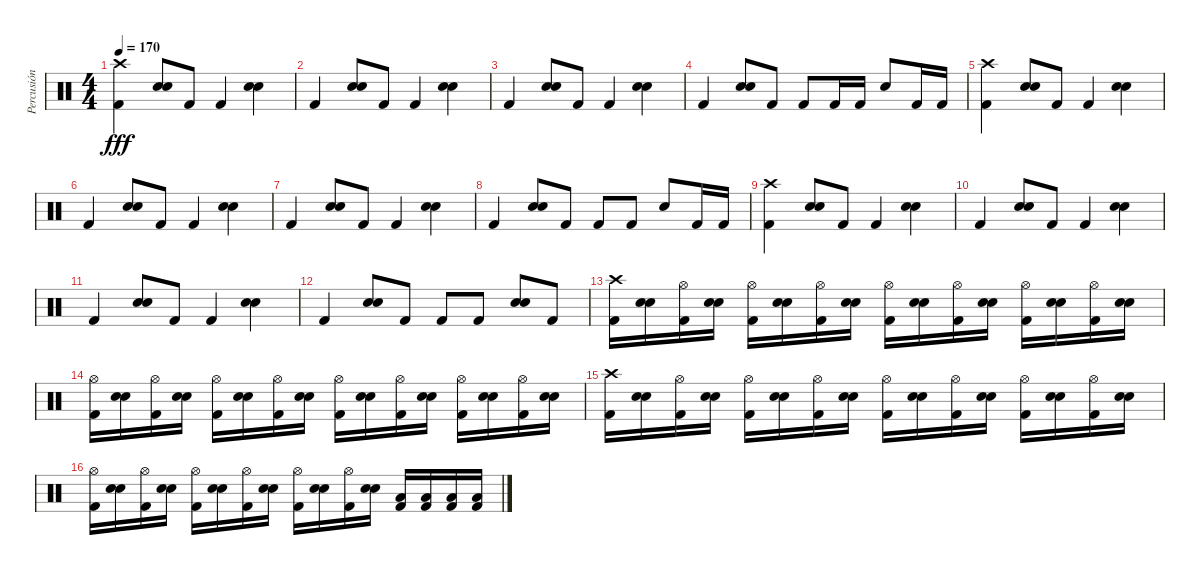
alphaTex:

\track ("Percusión" "Percusión") {instrument percussion}
\staff {score}
\articulation defaults
\ts (4 4)
\tempo 170
\clef neutral
\ks c
("Crash high (hit)" "Kick (hit) 2").4{dy fff} ("Snare (hit) 2" "Electric Snare (hit)").8 "Kick (hit) 2".8 "Kick (hit) 2".4 ("Snare (hit) 2" "Electric Snare (hit)").4 |
"Kick (hit) 2".4 ("Snare (hit) 2" "Electric Snare (hit)").8 "Kick (hit) 2".8 "Kick (hit) 2".4 ("Snare (hit) 2" "Electric Snare (hit)").4 |
"Kick (hit) 2".4 ("Snare (hit) 2" "Electric Snare (hit)").8 "Kick (hit) 2".8 "Kick (hit) 2".4 ("Snare (hit) 2" "Electric Snare (hit)").4 |
"Kick (hit) 2".4 ("Snare (hit) 2" "Electric Snare (hit)").8 "Kick (hit) 2".8 "Kick (hit) 2".8 "Kick (hit) 2".16 "Kick (hit) 2".16 "Snare (hit) 2".8 "Kick (hit) 2".16 "Kick (hit) 2".16 |
("Crash high (hit)" "Kick (hit) 2").4 ("Snare (hit) 2" "Electric Snare (hit)").8 "Kick (hit) 2".8 "Kick (hit) 2".4 ("Snare (hit) 2" "Electric Snare (hit)").4 |
"Kick (hit) 2".4 ("Snare (hit) 2" "Electric Snare (hit)").8 "Kick (hit) 2".8 "Kick (hit) 2".4 ("Snare (hit) 2" "Electric Snare (hit)").4 |
"Kick (hit) 2".4 ("Snare (hit) 2" "Electric Snare (hit)").8 "Kick (hit) 2".8 "Kick (hit) 2".4 ("Snare (hit) 2" "Electric Snare (hit)").4 |
"Kick (hit) 2".4 ("Snare (hit) 2" "Electric Snare (hit)").8 "Kick (hit) 2".8 "Kick (hit) 2".8 "Kick (hit) 2".8 "Snare (hit) 2".8 "Kick (hit) 2".16 "Kick (hit) 2".16 |
("Crash high (hit)" "Kick (hit) 2").4 ("Snare (hit) 2" "Electric Snare (hit)").8 "Kick (hit) 2".8 "Kick (hit) 2".4 ("Snare (hit) 2" "Electric Snare (hit)").4 |
"Kick (hit) 2".4 ("Snare (hit) 2" "Electric Snare (hit)").8 "Kick (hit) 2".8 "Kick (hit) 2".4 ("Snare (hit) 2" "Electric Snare (hit)").4 |
"Kick (hit) 2".4 ("Snare (hit) 2" "Electric Snare (hit)").8 "Kick (hit) 2".8 "Kick (hit) 2".4 ("Snare (hit) 2" "Electric Snare (hit)").4 |
"Kick (hit) 2".4 ("Snare (hit) 2" "Electric Snare (hit)").8 "Kick (hit) 2".8 "Kick (hit) 2".8 "Kick (hit) 2".8 ("Snare (hit) 2" "Electric Snare (hit)").8 "Kick (hit) 2".8 |
("Kick (hit) 2" "Crash high (hit)").16 ("Snare (hit) 2" "Electric Snare (hit)").16 ("Kick (hit) 2" "Hi-Hat (open)").16 ("Snare (hit) 2" "Electric Snare (hit)").16 ("Kick (hit) 2" "Hi-Hat (open)").16 ("Snare (hit) 2" "Electric Snare (hit)").16 ("Kick (hit) 2" "Hi-Hat (open)").16 ("Snare (hit) 2" "Electric Snare (hit)").16 ("Kick (hit) 2" "Hi-Hat (open)").16 ("Snare (hit) 2" "Electric Snare (hit)").16 ("Kick (hit) 2" "Hi-Hat (open)").16 ("Snare (hit) 2" "Electric Snare (hit)").16 ("Kick (hit) 2" "Hi-Hat (open)").16 ("Snare (hit) 2" "Electric Snare (hit)").16 ("Kick (hit) 2" "Hi-Hat (open)").16 ("Snare (hit) 2" "Electric Snare (hit)").16 |
("Kick (hit) 2" "Hi-Hat (open)").16 ("Snare (hit) 2" "Electric Snare (hit)").16 ("Kick (hit) 2" "Hi-Hat (open)").16 ("Snare (hit) 2" "Electric Snare (hit)").16 ("Kick (hit) 2" "Hi-Hat (open)").16 ("Snare (hit) 2" "Electric Snare (hit)").16 ("Kick (hit) 2" "Hi-Hat (open)").16 ("Snare (hit) 2" "Electric Snare (hit)").16 ("Kick (hit) 2" "Hi-Hat (open)").16 ("Snare (hit) 2" "Electric Snare (hit)").16 ("Kick (hit) 2" "Hi-Hat (open)").16 ("Snare (hit) 2" "Electric Snare (hit)").16 ("Kick (hit) 2" "Hi-Hat (open)").16 ("Snare (hit) 2" "Electric Snare (hit)").16 ("Kick (hit) 2" "Hi-Hat (open)").16 ("Snare (hit) 2" "Electric Snare (hit)").16 |
("Kick (hit) 2" "Crash high (hit)").16 ("Snare (hit) 2" "Electric Snare (hit)").16 ("Kick (hit) 2" "Hi-Hat (open)").16 ("Snare (hit) 2" "Electric Snare (hit)").16 ("Kick (hit) 2" "Hi-Hat (open)").16 ("Snare (hit) 2" "Electric Snare (hit)").16 ("Kick (hit) 2" "Hi-Hat (open)").16 ("Snare (hit) 2" "Electric Snare (hit)").16 ("Kick (hit) 2" "Hi-Hat (open)").16 ("Snare (hit) 2" "Electric Snare (hit)").16 ("Kick (hit) 2" "Hi-Hat (open)").16 ("Snare (hit) 2" "Electric Snare (hit)").16 ("Kick (hit) 2" "Hi-Hat (open)").16 ("Snare (hit) 2" "Electric Snare (hit)").16 ("Kick (hit) 2" "Hi-Hat (open)").16 ("Snare (hit) 2" "Electric Snare (hit)").16 |
("Kick (hit) 2" "Hi-Hat (open)").16 ("Snare (hit) 2" "Electric Snare (hit)").16 ("Kick (hit) 2" "Hi-Hat (open)").16 ("Snare (hit) 2" "Electric Snare (hit)").16 ("Kick (hit) 2" "Hi-Hat (open)").16 ("Snare (hit) 2" "Electric Snare (hit)").16 ("Kick (hit) 2" "Hi-Hat (open)").16 ("Snare (hit) 2" "Electric Snare (hit)").16 ("Kick (hit) 2" "Hi-Hat (open)").16 ("Snare (hit) 2" "Electric Snare (hit)").16 ("Kick (hit) 2" "Hi-Hat (open)").16 ("Snare (hit) 2" "Electric Snare (hit)").16 ("Kick (hit) 2" "Low Tom (hit)").16 ("Kick (hit) 2" "Low Tom (hit)").16 ("Kick (hit) 2" "Low Tom (hit)").16 ("Kick (hit) 2" "Low Tom (hit)").16
